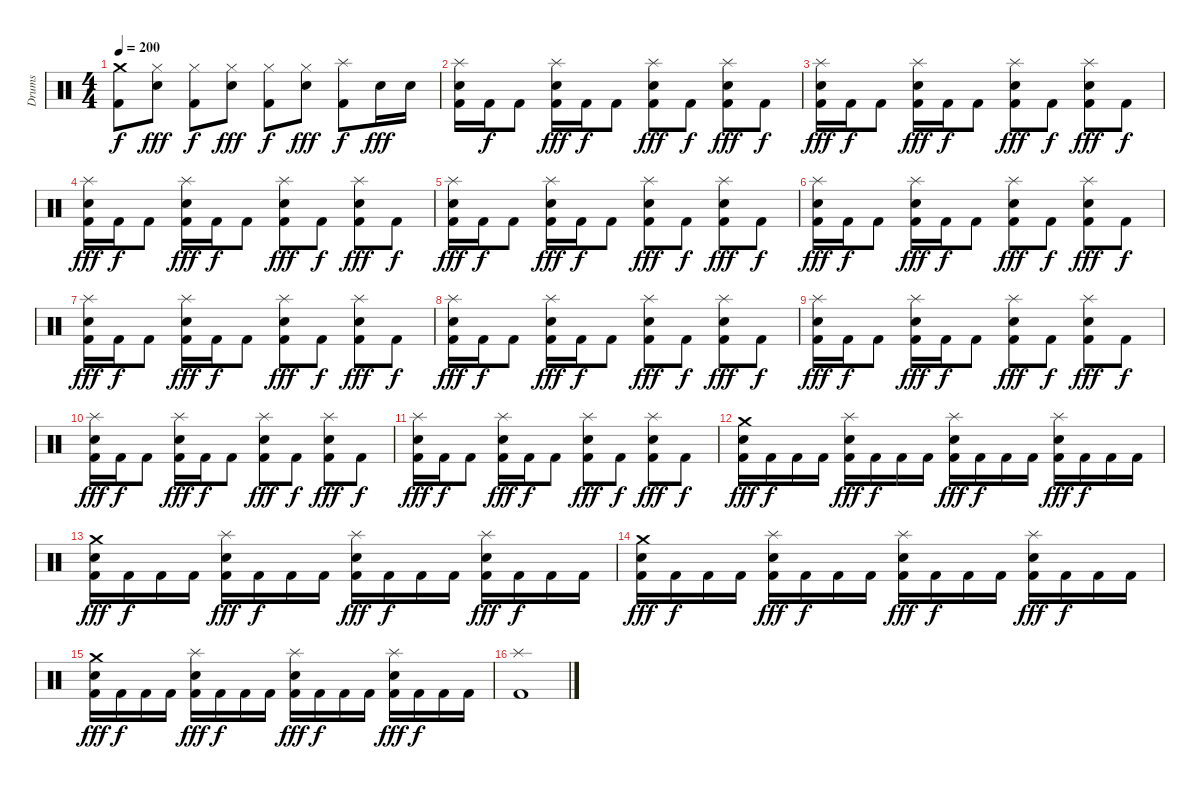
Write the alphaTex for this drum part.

\track ("Drums" "Drums") {instrument percussion}
\staff {score}
\articulation defaults
\ts (4 4)
\tempo 200
\clef neutral
\ks c
("Crash medium (hit)" "Kick (hit) 2").8{dy f} ("Hi-Hat (closed)" "Snare (hit) 2").8{dy fff} ("Hi-Hat (closed)" "Kick (hit) 2").8{dy f} ("Hi-Hat (closed)" "Snare (hit) 2").8{dy fff} ("Hi-Hat (closed)" "Kick (hit) 2").8{dy f} ("Hi-Hat (closed)" "Snare (hit) 2").8{dy fff} ("Splash (hit)" "Kick (hit) 2").8{dy f} "Snare (hit) 2".16{dy fff} "Snare (hit) 2".16 |
("Splash (hit)" "Snare (hit) 2" "Kick (hit) 2").16 "Kick (hit) 2".16{dy f} "Kick (hit) 2".8 ("Splash (hit)" "Snare (hit) 2" "Kick (hit) 2").16{dy fff} "Kick (hit) 2".16{dy f} "Kick (hit) 2".8 ("Splash (hit)" "Snare (hit) 2" "Kick (hit) 2").8{dy fff} "Kick (hit) 2".8{dy f} ("Splash (hit)" "Snare (hit) 2" "Kick (hit) 2").8{dy fff} "Kick (hit) 2".8{dy f} |
("Splash (hit)" "Snare (hit) 2" "Kick (hit) 2").16{dy fff} "Kick (hit) 2".16{dy f} "Kick (hit) 2".8 ("Splash (hit)" "Snare (hit) 2" "Kick (hit) 2").16{dy fff} "Kick (hit) 2".16{dy f} "Kick (hit) 2".8 ("Splash (hit)" "Snare (hit) 2" "Kick (hit) 2").8{dy fff} "Kick (hit) 2".8{dy f} ("Splash (hit)" "Snare (hit) 2" "Kick (hit) 2").8{dy fff} "Kick (hit) 2".8{dy f} |
("Splash (hit)" "Snare (hit) 2" "Kick (hit) 2").16{dy fff} "Kick (hit) 2".16{dy f} "Kick (hit) 2".8 ("Splash (hit)" "Snare (hit) 2" "Kick (hit) 2").16{dy fff} "Kick (hit) 2".16{dy f} "Kick (hit) 2".8 ("Splash (hit)" "Snare (hit) 2" "Kick (hit) 2").8{dy fff} "Kick (hit) 2".8{dy f} ("Splash (hit)" "Snare (hit) 2" "Kick (hit) 2").8{dy fff} "Kick (hit) 2".8{dy f} |
("Splash (hit)" "Snare (hit) 2" "Kick (hit) 2").16{dy fff} "Kick (hit) 2".16{dy f} "Kick (hit) 2".8 ("Splash (hit)" "Snare (hit) 2" "Kick (hit) 2").16{dy fff} "Kick (hit) 2".16{dy f} "Kick (hit) 2".8 ("Splash (hit)" "Snare (hit) 2" "Kick (hit) 2").8{dy fff} "Kick (hit) 2".8{dy f} ("Splash (hit)" "Snare (hit) 2" "Kick (hit) 2").8{dy fff} "Kick (hit) 2".8{dy f} |
("Splash (hit)" "Snare (hit) 2" "Kick (hit) 2").16{dy fff} "Kick (hit) 2".16{dy f} "Kick (hit) 2".8 ("Splash (hit)" "Snare (hit) 2" "Kick (hit) 2").16{dy fff} "Kick (hit) 2".16{dy f} "Kick (hit) 2".8 ("Splash (hit)" "Snare (hit) 2" "Kick (hit) 2").8{dy fff} "Kick (hit) 2".8{dy f} ("Splash (hit)" "Snare (hit) 2" "Kick (hit) 2").8{dy fff} "Kick (hit) 2".8{dy f} |
("Splash (hit)" "Snare (hit) 2" "Kick (hit) 2").16{dy fff} "Kick (hit) 2".16{dy f} "Kick (hit) 2".8 ("Splash (hit)" "Snare (hit) 2" "Kick (hit) 2").16{dy fff} "Kick (hit) 2".16{dy f} "Kick (hit) 2".8 ("Splash (hit)" "Snare (hit) 2" "Kick (hit) 2").8{dy fff} "Kick (hit) 2".8{dy f} ("Splash (hit)" "Snare (hit) 2" "Kick (hit) 2").8{dy fff} "Kick (hit) 2".8{dy f} |
("Splash (hit)" "Snare (hit) 2" "Kick (hit) 2").16{dy fff} "Kick (hit) 2".16{dy f} "Kick (hit) 2".8 ("Splash (hit)" "Snare (hit) 2" "Kick (hit) 2").16{dy fff} "Kick (hit) 2".16{dy f} "Kick (hit) 2".8 ("Splash (hit)" "Snare (hit) 2" "Kick (hit) 2").8{dy fff} "Kick (hit) 2".8{dy f} ("Splash (hit)" "Snare (hit) 2" "Kick (hit) 2").8{dy fff} "Kick (hit) 2".8{dy f} |
("Splash (hit)" "Snare (hit) 2" "Kick (hit) 2").16{dy fff} "Kick (hit) 2".16{dy f} "Kick (hit) 2".8 ("Splash (hit)" "Snare (hit) 2" "Kick (hit) 2").16{dy fff} "Kick (hit) 2".16{dy f} "Kick (hit) 2".8 ("Splash (hit)" "Snare (hit) 2" "Kick (hit) 2").8{dy fff} "Kick (hit) 2".8{dy f} ("Splash (hit)" "Snare (hit) 2" "Kick (hit) 2").8{dy fff} "Kick (hit) 2".8{dy f} |
("Splash (hit)" "Snare (hit) 2" "Kick (hit) 2").16{dy fff} "Kick (hit) 2".16{dy f} "Kick (hit) 2".8 ("Splash (hit)" "Snare (hit) 2" "Kick (hit) 2").16{dy fff} "Kick (hit) 2".16{dy f} "Kick (hit) 2".8 ("Splash (hit)" "Snare (hit) 2" "Kick (hit) 2").8{dy fff} "Kick (hit) 2".8{dy f} ("Splash (hit)" "Snare (hit) 2" "Kick (hit) 2").8{dy fff} "Kick (hit) 2".8{dy f} |
("Splash (hit)" "Snare (hit) 2" "Kick (hit) 2").16{dy fff} "Kick (hit) 2".16{dy f} "Kick (hit) 2".8 ("Splash (hit)" "Snare (hit) 2" "Kick (hit) 2").16{dy fff} "Kick (hit) 2".16{dy f} "Kick (hit) 2".8 ("Splash (hit)" "Snare (hit) 2" "Kick (hit) 2").8{dy fff} "Kick (hit) 2".8{dy f} ("Splash (hit)" "Snare (hit) 2" "Kick (hit) 2").8{dy fff} "Kick (hit) 2".8{dy f} |
("Crash medium (hit)" "Snare (hit) 2" "Kick (hit) 2").16{dy fff} "Kick (hit) 2".16{dy f} "Kick (hit) 2".16 "Kick (hit) 2".16 ("Splash (hit)" "Snare (hit) 2" "Kick (hit) 2").16{dy fff} "Kick (hit) 2".16{dy f} "Kick (hit) 2".16 "Kick (hit) 2".16 ("Splash (hit)" "Snare (hit) 2" "Kick (hit) 2").16{dy fff} "Kick (hit) 2".16{dy f} "Kick (hit) 2".16 "Kick (hit) 2".16 ("Splash (hit)" "Snare (hit) 2" "Kick (hit) 2").16{dy fff} "Kick (hit) 2".16{dy f} "Kick (hit) 2".16 "Kick (hit) 2".16 |
("Crash medium (hit)" "Snare (hit) 2" "Kick (hit) 2").16{dy fff} "Kick (hit) 2".16{dy f} "Kick (hit) 2".16 "Kick (hit) 2".16 ("Splash (hit)" "Snare (hit) 2" "Kick (hit) 2").16{dy fff} "Kick (hit) 2".16{dy f} "Kick (hit) 2".16 "Kick (hit) 2".16 ("Splash (hit)" "Snare (hit) 2" "Kick (hit) 2").16{dy fff} "Kick (hit) 2".16{dy f} "Kick (hit) 2".16 "Kick (hit) 2".16 ("Splash (hit)" "Snare (hit) 2" "Kick (hit) 2").16{dy fff} "Kick (hit) 2".16{dy f} "Kick (hit) 2".16 "Kick (hit) 2".16 |
("Crash medium (hit)" "Snare (hit) 2" "Kick (hit) 2").16{dy fff} "Kick (hit) 2".16{dy f} "Kick (hit) 2".16 "Kick (hit) 2".16 ("Splash (hit)" "Snare (hit) 2" "Kick (hit) 2").16{dy fff} "Kick (hit) 2".16{dy f} "Kick (hit) 2".16 "Kick (hit) 2".16 ("Splash (hit)" "Snare (hit) 2" "Kick (hit) 2").16{dy fff} "Kick (hit) 2".16{dy f} "Kick (hit) 2".16 "Kick (hit) 2".16 ("Splash (hit)" "Snare (hit) 2" "Kick (hit) 2").16{dy fff} "Kick (hit) 2".16{dy f} "Kick (hit) 2".16 "Kick (hit) 2".16 |
("Crash medium (hit)" "Snare (hit) 2" "Kick (hit) 2").16{dy fff} "Kick (hit) 2".16{dy f} "Kick (hit) 2".16 "Kick (hit) 2".16 ("Splash (hit)" "Snare (hit) 2" "Kick (hit) 2").16{dy fff} "Kick (hit) 2".16{dy f} "Kick (hit) 2".16 "Kick (hit) 2".16 ("Splash (hit)" "Snare (hit) 2" "Kick (hit) 2").16{dy fff} "Kick (hit) 2".16{dy f} "Kick (hit) 2".16 "Kick (hit) 2".16 ("Splash (hit)" "Snare (hit) 2" "Kick (hit) 2").16{dy fff} "Kick (hit) 2".16{dy f} "Kick (hit) 2".16 "Kick (hit) 2".16 |
("Splash (hit)" "Kick (hit) 2").1
